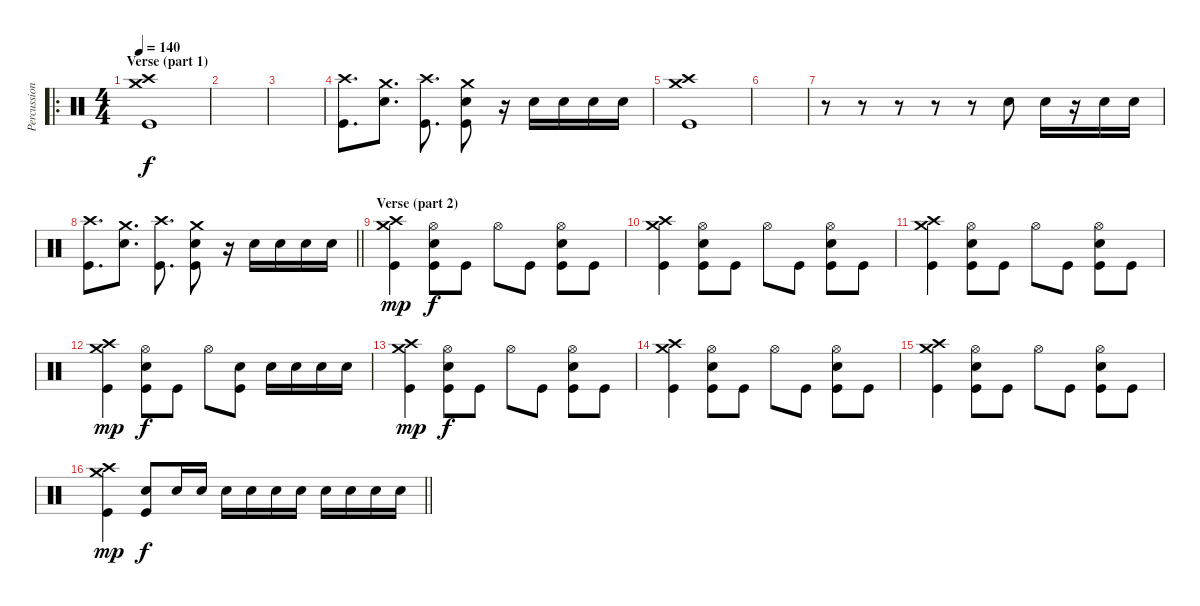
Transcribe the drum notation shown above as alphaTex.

\track ("Percussion" "Percussion") {instrument percussion}
\staff {score}
\articulation defaults
\ro
\ts (4 4)
\section ("" "Verse (part 1)")
\tempo 140
\clef neutral
\ks c
("Crash high (hit)" "Crash medium (hit)" "Kick (hit)").1{dy f} |
|
|
("Crash high (hit)" "Kick (hit)").8{d} ("Crash medium (hit)" "Electric Snare (hit)").8{d} ("Crash high (hit)" "Kick (hit)").8{d} ("Crash medium (hit)" "Electric Snare (hit)" "Kick (hit)").8 r.16 "Electric Snare (hit)".16 "Electric Snare (hit)".16 "Electric Snare (hit)".16 "Electric Snare (hit)".16 |
("Crash high (hit)" "Crash medium (hit)" "Kick (hit)").1 |
|
r.8 r.8 r.8 r.8 r.8 "Electric Snare (hit)".8 "Electric Snare (hit)".16 r.16 "Electric Snare (hit)".16 "Electric Snare (hit)".16 |
\barLineRight lightlight
("Crash high (hit)" "Kick (hit)").8{d} ("Crash medium (hit)" "Electric Snare (hit)").8{d} ("Crash high (hit)" "Kick (hit)").8{d} ("Crash medium (hit)" "Electric Snare (hit)" "Kick (hit)").8 r.16 "Electric Snare (hit)".16 "Electric Snare (hit)".16 "Electric Snare (hit)".16 "Electric Snare (hit)".16 |
\section ("" "Verse (part 2)")
("Crash high (hit)" "Crash medium (hit)" "Kick (hit)").4{dy mp} ("Hi-Hat (open)" "Electric Snare (hit)" "Kick (hit)").8{dy f} "Kick (hit)".8 "Hi-Hat (open)".8 "Kick (hit)".8 ("Hi-Hat (open)" "Electric Snare (hit)" "Kick (hit)").8 "Kick (hit)".8 |
("Crash high (hit)" "Crash medium (hit)" "Kick (hit)").4 ("Hi-Hat (open)" "Electric Snare (hit)" "Kick (hit)").8 "Kick (hit)".8 "Hi-Hat (open)".8 "Kick (hit)".8 ("Hi-Hat (open)" "Electric Snare (hit)" "Kick (hit)").8 "Kick (hit)".8 |
("Crash high (hit)" "Crash medium (hit)" "Kick (hit)").4 ("Hi-Hat (open)" "Electric Snare (hit)" "Kick (hit)").8 "Kick (hit)".8 "Hi-Hat (open)".8 "Kick (hit)".8 ("Hi-Hat (open)" "Electric Snare (hit)" "Kick (hit)").8 "Kick (hit)".8 |
("Crash high (hit)" "Crash medium (hit)" "Kick (hit)").4{dy mp} ("Hi-Hat (open)" "Electric Snare (hit)" "Kick (hit)").8{dy f} "Kick (hit)".8 "Hi-Hat (open)".8 ("Electric Snare (hit)" "Kick (hit)").8 "Electric Snare (hit)".16 "Electric Snare (hit)".16 "Electric Snare (hit)".16 "Electric Snare (hit)".16 |
("Crash high (hit)" "Crash medium (hit)" "Kick (hit)").4{dy mp} ("Hi-Hat (open)" "Electric Snare (hit)" "Kick (hit)").8{dy f} "Kick (hit)".8 "Hi-Hat (open)".8 "Kick (hit)".8 ("Hi-Hat (open)" "Electric Snare (hit)" "Kick (hit)").8 "Kick (hit)".8 |
("Crash high (hit)" "Crash medium (hit)" "Kick (hit)").4 ("Hi-Hat (open)" "Electric Snare (hit)" "Kick (hit)").8 "Kick (hit)".8 "Hi-Hat (open)".8 "Kick (hit)".8 ("Hi-Hat (open)" "Electric Snare (hit)" "Kick (hit)").8 "Kick (hit)".8 |
("Crash high (hit)" "Crash medium (hit)" "Kick (hit)").4 ("Hi-Hat (open)" "Electric Snare (hit)" "Kick (hit)").8 "Kick (hit)".8 "Hi-Hat (open)".8 "Kick (hit)".8 ("Hi-Hat (open)" "Electric Snare (hit)" "Kick (hit)").8 "Kick (hit)".8 |
\barLineRight lightlight
("Crash high (hit)" "Crash medium (hit)" "Kick (hit)").4{dy mp} ("Electric Snare (hit)" "Kick (hit)").8{dy f} "Electric Snare (hit)".16 "Electric Snare (hit)".16 "Electric Snare (hit)".16 "Electric Snare (hit)".16 "Electric Snare (hit)".16 "Electric Snare (hit)".16 "Electric Snare (hit)".16 "Electric Snare (hit)".16 "Electric Snare (hit)".16 "Electric Snare (hit)".16
